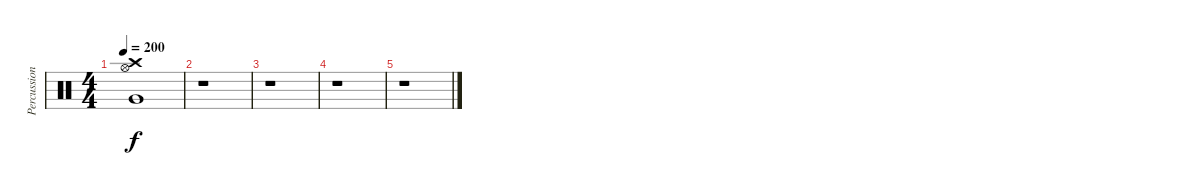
\track ("Percussion" "Percussion") {instrument percussion}
\staff {score}
\articulation defaults
\ts (4 4)
\tempo 200
\clef neutral
\ks c
("Very Low Tom (hit)" "Hi-Hat (open)" "Crash high (hit)").1{dy f} |
r.1 |
r.1 |
r.1 |
r.1
